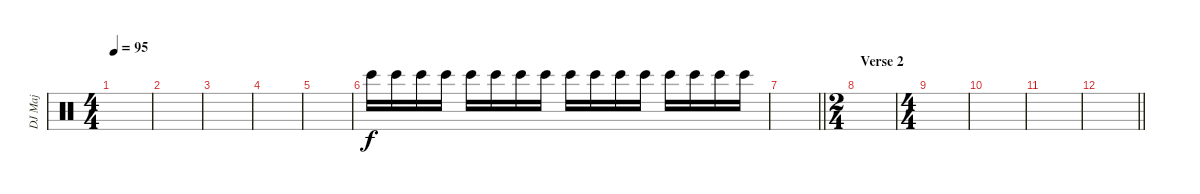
\track ("DJ Maj" "DJ Maj") {instrument percussion}
\staff {score}
\articulation defaults
\ts (4 4)
\tempo 95
\clef neutral
\ks c
|
|
|
|
|
"Bongo High (hit)".16{dy f} "Bongo High (hit)".16 "Bongo High (hit)".16 "Bongo High (hit)".16 "Bongo High (hit)".16 "Bongo High (hit)".16 "Bongo High (hit)".16 "Bongo High (hit)".16 "Bongo High (hit)".16 "Bongo High (hit)".16 "Bongo High (hit)".16 "Bongo High (hit)".16 "Bongo High (hit)".16 "Bongo High (hit)".16 "Bongo High (hit)".16 "Bongo High (hit)".16 |
\barLineRight lightlight
|
\ts (2 4)
\section ("" "Verse 2")
|
\ts (4 4)
|
|
|
\barLineRight lightlight
